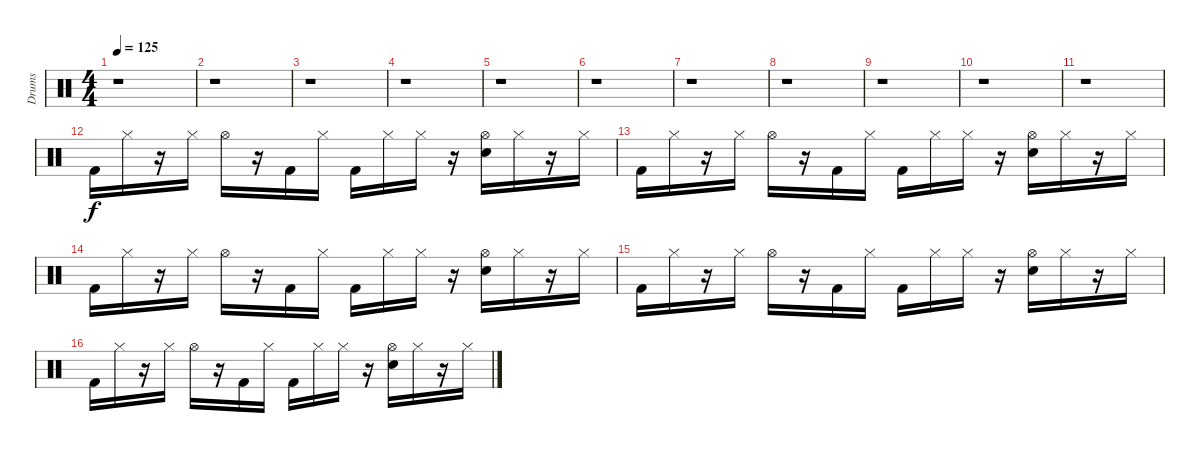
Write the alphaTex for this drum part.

\track ("Drums" "Drums") {instrument percussion}
\staff {score}
\articulation defaults
\ts (4 4)
\tempo 125
\clef neutral
\ks c
r.1{dy f} |
r.1 |
r.1 |
r.1 |
r.1 |
r.1 |
r.1 |
r.1 |
r.1 |
r.1 |
r.1 |
"Kick (hit) 2".16{volume 13} "Hi-Hat (closed)".16 r.16 "Hi-Hat (closed)".16 "Hi-Hat (open)".16 r.16 "Kick (hit) 2".16 "Hi-Hat (closed)".16 "Kick (hit) 2".16 "Hi-Hat (closed)".16 "Hi-Hat (closed)".16 r.16 ("Hi-Hat (open)" "Snare (hit) 2").16 "Hi-Hat (closed)".16 r.16 "Hi-Hat (closed)".16 |
"Kick (hit) 2".16 "Hi-Hat (closed)".16 r.16 "Hi-Hat (closed)".16 "Hi-Hat (open)".16 r.16 "Kick (hit) 2".16 "Hi-Hat (closed)".16 "Kick (hit) 2".16 "Hi-Hat (closed)".16 "Hi-Hat (closed)".16 r.16 ("Hi-Hat (open)" "Snare (hit) 2").16 "Hi-Hat (closed)".16 r.16 "Hi-Hat (closed)".16 |
"Kick (hit) 2".16 "Hi-Hat (closed)".16 r.16 "Hi-Hat (closed)".16 "Hi-Hat (open)".16 r.16 "Kick (hit) 2".16 "Hi-Hat (closed)".16 "Kick (hit) 2".16 "Hi-Hat (closed)".16 "Hi-Hat (closed)".16 r.16 ("Hi-Hat (open)" "Snare (hit) 2").16 "Hi-Hat (closed)".16 r.16 "Hi-Hat (closed)".16 |
"Kick (hit) 2".16 "Hi-Hat (closed)".16 r.16 "Hi-Hat (closed)".16 "Hi-Hat (open)".16 r.16 "Kick (hit) 2".16 "Hi-Hat (closed)".16 "Kick (hit) 2".16 "Hi-Hat (closed)".16 "Hi-Hat (closed)".16 r.16 ("Hi-Hat (open)" "Snare (hit) 2").16 "Hi-Hat (closed)".16 r.16 "Hi-Hat (closed)".16 |
"Kick (hit) 2".16 "Hi-Hat (closed)".16 r.16 "Hi-Hat (closed)".16 "Hi-Hat (open)".16 r.16 "Kick (hit) 2".16 "Hi-Hat (closed)".16 "Kick (hit) 2".16 "Hi-Hat (closed)".16 "Hi-Hat (closed)".16 r.16 ("Hi-Hat (open)" "Snare (hit) 2").16 "Hi-Hat (closed)".16 r.16 "Hi-Hat (closed)".16
